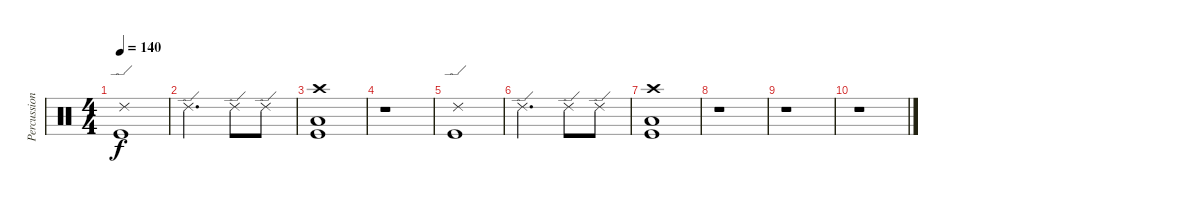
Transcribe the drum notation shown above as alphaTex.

\track ("Percussion" "Percussion") {instrument percussion}
\staff {score}
\articulation defaults
\ts (4 4)
\tempo 140
\clef neutral
\ks c
("Ride (edge) 2" "Kick (hit)").1{dy f} |
"Ride (edge) 2".2{d} "Ride (edge) 2".8 "Ride (edge) 2".8 |
("Crash high (hit)" "Low Floor Tom (hit)" "Kick (hit)").1 |
r.1 |
("Ride (edge) 2" "Kick (hit)").1{volume 0} |
"Ride (edge) 2".2{d} "Ride (edge) 2".8 "Ride (edge) 2".8 |
("Crash high (hit)" "Low Floor Tom (hit)" "Kick (hit)").1 |
r.1 |
r.1 |
r.1
